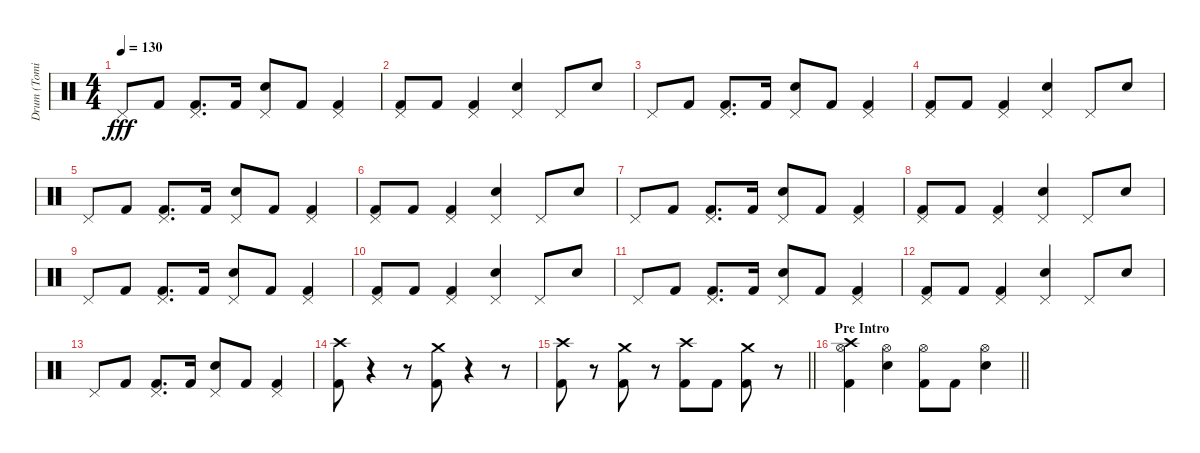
\track ("Drum (Tomi)" "Drum (Tomi") {instrument percussion}
\staff {score}
\articulation defaults
\ts (4 4)
\tempo 130
\clef neutral
\ks c "Pedal Hi-Hat (hit)".8{dy fff} "Kick (hit) 2".8
("Kick (hit) 2" "Pedal Hi-Hat (hit)").8{d} "Kick (hit) 2".16 ("Pedal Hi-Hat (hit)" "Electric Snare (hit)").8 "Kick (hit) 2".8 ("Pedal Hi-Hat (hit)" "Kick (hit) 2").4 |
("Pedal Hi-Hat (hit)" "Kick (hit) 2").8 "Kick (hit) 2".8 ("Kick (hit) 2" "Pedal Hi-Hat (hit)").4 ("Pedal Hi-Hat (hit)" "Electric Snare (hit)").4 "Pedal Hi-Hat (hit)".8 "Electric Snare (hit)".8 |
"Pedal Hi-Hat (hit)".8 "Kick (hit) 2".8 ("Pedal Hi-Hat (hit)" "Kick (hit) 2").8{d} "Kick (hit) 2".16 ("Pedal Hi-Hat (hit)" "Electric Snare (hit)").8 "Kick (hit) 2".8 ("Pedal Hi-Hat (hit)" "Kick (hit) 2").4 |
("Pedal Hi-Hat (hit)" "Kick (hit) 2").8 "Kick (hit) 2".8 ("Pedal Hi-Hat (hit)" "Kick (hit) 2").4 ("Pedal Hi-Hat (hit)" "Electric Snare (hit)").4 "Pedal Hi-Hat (hit)".8 "Electric Snare (hit)".8 |
"Pedal Hi-Hat (hit)".8 "Kick (hit) 2".8 ("Pedal Hi-Hat (hit)" "Kick (hit) 2").8{d} "Kick (hit) 2".16 ("Pedal Hi-Hat (hit)" "Electric Snare (hit)").8 "Kick (hit) 2".8 ("Pedal Hi-Hat (hit)" "Kick (hit) 2").4 |
("Kick (hit) 2" "Pedal Hi-Hat (hit)").8 "Kick (hit) 2".8 ("Kick (hit) 2" "Pedal Hi-Hat (hit)").4 ("Electric Snare (hit)" "Pedal Hi-Hat (hit)").4 "Pedal Hi-Hat (hit)".8 "Electric Snare (hit)".8 |
"Pedal Hi-Hat (hit)".8 "Kick (hit) 2".8 ("Pedal Hi-Hat (hit)" "Kick (hit) 2").8{d} "Kick (hit) 2".16 ("Pedal Hi-Hat (hit)" "Electric Snare (hit)").8 "Kick (hit) 2".8 ("Pedal Hi-Hat (hit)" "Kick (hit) 2").4 |
("Pedal Hi-Hat (hit)" "Kick (hit) 2").8 "Kick (hit) 2".8 ("Pedal Hi-Hat (hit)" "Kick (hit) 2").4 ("Electric Snare (hit)" "Pedal Hi-Hat (hit)").4 "Pedal Hi-Hat (hit)".8 "Electric Snare (hit)".8 |
"Pedal Hi-Hat (hit)".8 "Kick (hit) 2".8 ("Pedal Hi-Hat (hit)" "Kick (hit) 2").8{d} "Kick (hit) 2".16 ("Pedal Hi-Hat (hit)" "Electric Snare (hit)").8 "Kick (hit) 2".8 ("Pedal Hi-Hat (hit)" "Kick (hit) 2").4 |
("Pedal Hi-Hat (hit)" "Kick (hit) 2").8 "Kick (hit) 2".8 ("Pedal Hi-Hat (hit)" "Kick (hit) 2").4 ("Pedal Hi-Hat (hit)" "Electric Snare (hit)").4 "Pedal Hi-Hat (hit)".8 "Electric Snare (hit)".8 |
"Pedal Hi-Hat (hit)".8 "Kick (hit) 2".8 ("Pedal Hi-Hat (hit)" "Kick (hit) 2").8{d} "Kick (hit) 2".16 ("Pedal Hi-Hat (hit)" "Electric Snare (hit)").8 "Kick (hit) 2".8 ("Pedal Hi-Hat (hit)" "Kick (hit) 2").4 |
("Pedal Hi-Hat (hit)" "Kick (hit) 2").8 "Kick (hit) 2".8 ("Pedal Hi-Hat (hit)" "Kick (hit) 2").4 ("Pedal Hi-Hat (hit)" "Electric Snare (hit)").4 "Pedal Hi-Hat (hit)".8 "Electric Snare (hit)".8 |
"Pedal Hi-Hat (hit)".8 "Kick (hit) 2".8 ("Kick (hit) 2" "Pedal Hi-Hat (hit)").8{d} "Kick (hit) 2".16 ("Electric Snare (hit)" "Pedal Hi-Hat (hit)").8 "Kick (hit) 2".8 ("Pedal Hi-Hat (hit)" "Kick (hit) 2").4 |
("Crash high (hit)" "Kick (hit) 2").8 r.4 r.8 ("Crash medium (hit)" "Kick (hit) 2").8 r.4 r.8 |
\barLineRight lightlight
("Crash high (hit)" "Kick (hit) 2").8 r.8 ("Crash medium (hit)" "Kick (hit) 2").8 r.8 ("Crash high (hit)" "Kick (hit) 2").8 "Kick (hit) 2".8 ("Crash medium (hit)" "Kick (hit) 2").8 r.8 |
\section ("" "Pre Intro")
\barLineRight lightlight
("Hi-Hat (open)" "Kick (hit) 2" "Crash high (hit)").4 ("Hi-Hat (open)" "Electric Snare (hit)").4 ("Hi-Hat (open)" "Kick (hit) 2").8 "Kick (hit) 2".8 ("Hi-Hat (open)" "Electric Snare (hit)").4
